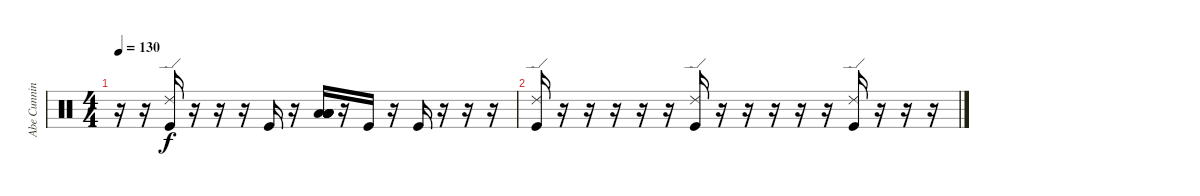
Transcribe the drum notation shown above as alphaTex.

\track ("Abe Cunningham" "Abe Cunnin") {instrument percussion}
\staff {score}
\articulation defaults
\ts (4 4)
\tempo 130
\clef neutral
\ks c
r.16{dy f} r.16 ("Ride (edge) 2" "Kick (hit)").16 r.16 r.16 r.16 "Kick (hit)".16 r.16 ("Low Tom (hit)" "Low Tom (hit)" "Low Tom (hit)" "Low Tom (hit)" "Low Tom (hit)" "Low Tom (hit)").16 r.16 "Kick (hit)".16 r.16 "Kick (hit)".16 r.16 r.16 r.16 |
("Ride (edge) 2" "Kick (hit)").16 r.16 r.16 r.16 r.16 r.16 ("Ride (edge) 2" "Kick (hit)").16 r.16 r.16 r.16 r.16 r.16 ("Ride (edge) 2" "Kick (hit)").16 r.16 r.16 r.16
